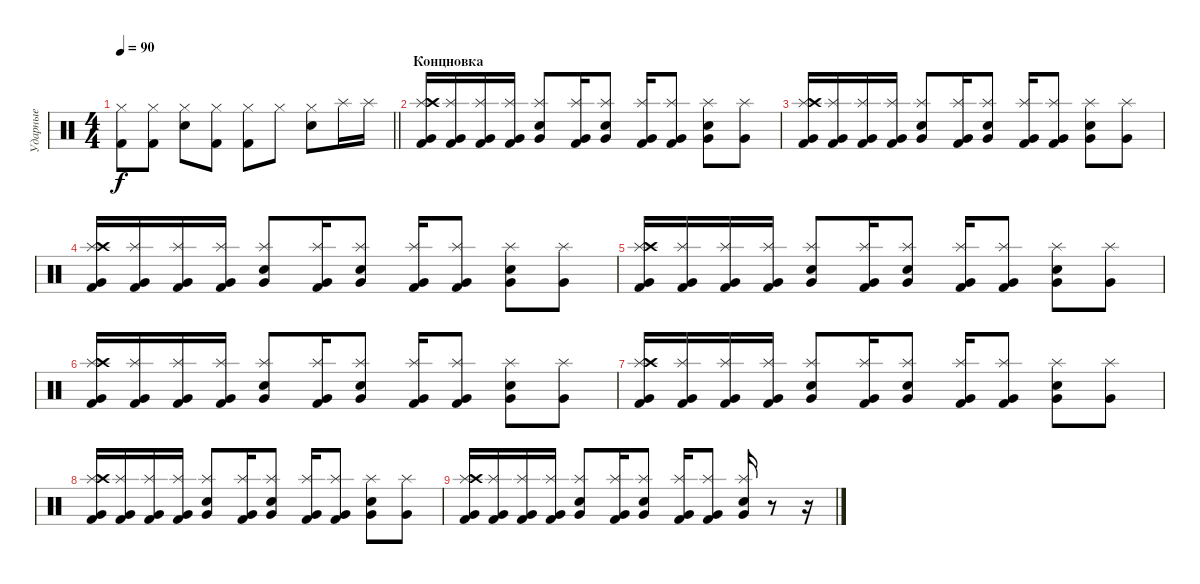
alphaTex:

\track ("Ударные" "Ударные") {instrument percussion}
\staff {score}
\articulation defaults
\ts (4 4)
\tempo 90
\clef neutral
\barLineRight lightlight
\ks c
("Hi-Hat (closed)" "Kick (hit) 2").8{dy f} ("Hi-Hat (closed)" "Kick (hit) 2").8 ("Hi-Hat (closed)" "Snare (hit) 2").8 ("Hi-Hat (closed)" "Kick (hit) 2").8 ("Hi-Hat (closed)" "Kick (hit) 2").8 "Hi-Hat (closed)".8 ("Hi-Hat (closed)" "Snare (hit) 2").8 "Splash (hit)".16 "Splash (hit)".16 |
\section ("" "Концновка ")
("Splash (hit)" "Crash high (hit)" "Very Low Tom (hit)" "Kick (hit) 2").16{volume 13} ("Splash (hit)" "Very Low Tom (hit)" "Kick (hit) 2").16 ("Splash (hit)" "Very Low Tom (hit)" "Kick (hit) 2").16 ("Splash (hit)" "Very Low Tom (hit)" "Kick (hit) 2").16 ("Splash (hit)" "Snare (hit) 2" "Very Low Tom (hit)").8 ("Splash (hit)" "Very Low Tom (hit)" "Kick (hit) 2").16 ("Splash (hit)" "Snare (hit) 2" "Very Low Tom (hit)").8 ("Splash (hit)" "Very Low Tom (hit)" "Kick (hit) 2").16 ("Splash (hit)" "Very Low Tom (hit)" "Kick (hit) 2").8 ("Splash (hit)" "Snare (hit) 2" "Very Low Tom (hit)").8 ("Splash (hit)" "Very Low Tom (hit)").8 |
("Splash (hit)" "Crash high (hit)" "Very Low Tom (hit)" "Kick (hit) 2").16 ("Splash (hit)" "Very Low Tom (hit)" "Kick (hit) 2").16 ("Splash (hit)" "Very Low Tom (hit)" "Kick (hit) 2").16 ("Splash (hit)" "Very Low Tom (hit)" "Kick (hit) 2").16 ("Splash (hit)" "Snare (hit) 2" "Very Low Tom (hit)").8 ("Splash (hit)" "Very Low Tom (hit)" "Kick (hit) 2").16 ("Splash (hit)" "Snare (hit) 2" "Very Low Tom (hit)").8 ("Splash (hit)" "Very Low Tom (hit)" "Kick (hit) 2").16 ("Splash (hit)" "Very Low Tom (hit)" "Kick (hit) 2").8 ("Splash (hit)" "Snare (hit) 2" "Very Low Tom (hit)").8 ("Splash (hit)" "Very Low Tom (hit)").8 |
("Splash (hit)" "Crash high (hit)" "Very Low Tom (hit)" "Kick (hit) 2").16 ("Splash (hit)" "Very Low Tom (hit)" "Kick (hit) 2").16 ("Splash (hit)" "Very Low Tom (hit)" "Kick (hit) 2").16 ("Splash (hit)" "Very Low Tom (hit)" "Kick (hit) 2").16 ("Splash (hit)" "Snare (hit) 2" "Very Low Tom (hit)").8 ("Splash (hit)" "Very Low Tom (hit)" "Kick (hit) 2").16 ("Splash (hit)" "Snare (hit) 2" "Very Low Tom (hit)").8 ("Splash (hit)" "Very Low Tom (hit)" "Kick (hit) 2").16 ("Splash (hit)" "Very Low Tom (hit)" "Kick (hit) 2").8 ("Splash (hit)" "Snare (hit) 2" "Very Low Tom (hit)").8 ("Splash (hit)" "Very Low Tom (hit)").8 |
("Splash (hit)" "Crash high (hit)" "Very Low Tom (hit)" "Kick (hit) 2").16 ("Splash (hit)" "Very Low Tom (hit)" "Kick (hit) 2").16 ("Splash (hit)" "Very Low Tom (hit)" "Kick (hit) 2").16 ("Splash (hit)" "Very Low Tom (hit)" "Kick (hit) 2").16 ("Splash (hit)" "Snare (hit) 2" "Very Low Tom (hit)").8 ("Splash (hit)" "Very Low Tom (hit)" "Kick (hit) 2").16 ("Splash (hit)" "Snare (hit) 2" "Very Low Tom (hit)").8 ("Splash (hit)" "Very Low Tom (hit)" "Kick (hit) 2").16 ("Splash (hit)" "Very Low Tom (hit)" "Kick (hit) 2").8 ("Splash (hit)" "Snare (hit) 2" "Very Low Tom (hit)").8 ("Splash (hit)" "Very Low Tom (hit)").8 |
("Splash (hit)" "Crash high (hit)" "Very Low Tom (hit)" "Kick (hit) 2").16 ("Splash (hit)" "Very Low Tom (hit)" "Kick (hit) 2").16 ("Splash (hit)" "Very Low Tom (hit)" "Kick (hit) 2").16 ("Splash (hit)" "Very Low Tom (hit)" "Kick (hit) 2").16 ("Splash (hit)" "Snare (hit) 2" "Very Low Tom (hit)").8 ("Splash (hit)" "Very Low Tom (hit)" "Kick (hit) 2").16 ("Splash (hit)" "Snare (hit) 2" "Very Low Tom (hit)").8 ("Splash (hit)" "Very Low Tom (hit)" "Kick (hit) 2").16 ("Splash (hit)" "Very Low Tom (hit)" "Kick (hit) 2").8 ("Splash (hit)" "Snare (hit) 2" "Very Low Tom (hit)").8 ("Splash (hit)" "Very Low Tom (hit)").8 |
("Splash (hit)" "Crash high (hit)" "Very Low Tom (hit)" "Kick (hit) 2").16 ("Splash (hit)" "Very Low Tom (hit)" "Kick (hit) 2").16 ("Splash (hit)" "Very Low Tom (hit)" "Kick (hit) 2").16 ("Splash (hit)" "Very Low Tom (hit)" "Kick (hit) 2").16 ("Splash (hit)" "Snare (hit) 2" "Very Low Tom (hit)").8 ("Splash (hit)" "Very Low Tom (hit)" "Kick (hit) 2").16 ("Splash (hit)" "Snare (hit) 2" "Very Low Tom (hit)").8 ("Splash (hit)" "Very Low Tom (hit)" "Kick (hit) 2").16 ("Splash (hit)" "Very Low Tom (hit)" "Kick (hit) 2").8 ("Splash (hit)" "Snare (hit) 2" "Very Low Tom (hit)").8 ("Splash (hit)" "Very Low Tom (hit)").8 |
("Splash (hit)" "Crash high (hit)" "Very Low Tom (hit)" "Kick (hit) 2").16 ("Splash (hit)" "Very Low Tom (hit)" "Kick (hit) 2").16 ("Splash (hit)" "Very Low Tom (hit)" "Kick (hit) 2").16 ("Splash (hit)" "Very Low Tom (hit)" "Kick (hit) 2").16 ("Splash (hit)" "Snare (hit) 2" "Very Low Tom (hit)").8 ("Splash (hit)" "Very Low Tom (hit)" "Kick (hit) 2").16 ("Splash (hit)" "Snare (hit) 2" "Very Low Tom (hit)").8 ("Splash (hit)" "Very Low Tom (hit)" "Kick (hit) 2").16 ("Splash (hit)" "Very Low Tom (hit)" "Kick (hit) 2").8 ("Splash (hit)" "Snare (hit) 2" "Very Low Tom (hit)").8 ("Splash (hit)" "Very Low Tom (hit)").8 |
("Splash (hit)" "Crash high (hit)" "Very Low Tom (hit)" "Kick (hit) 2").16 ("Splash (hit)" "Very Low Tom (hit)" "Kick (hit) 2").16 ("Splash (hit)" "Very Low Tom (hit)" "Kick (hit) 2").16 ("Splash (hit)" "Very Low Tom (hit)" "Kick (hit) 2").16 ("Splash (hit)" "Snare (hit) 2" "Very Low Tom (hit)").8 ("Splash (hit)" "Very Low Tom (hit)" "Kick (hit) 2").16 ("Splash (hit)" "Snare (hit) 2" "Very Low Tom (hit)").8 ("Splash (hit)" "Very Low Tom (hit)" "Kick (hit) 2").16 ("Splash (hit)" "Very Low Tom (hit)" "Kick (hit) 2").8 ("Splash (hit)" "Snare (hit) 2" "Very Low Tom (hit)").16 r.8 r.16
